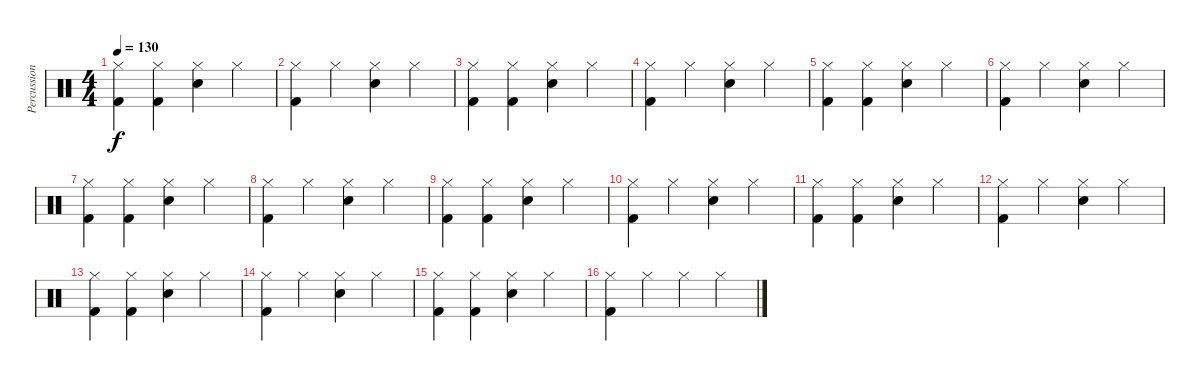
\track ("Percussion" "Percussion") {instrument percussion}
\staff {score}
\articulation defaults
\ts (4 4)
\tempo 130
\clef neutral
\ks c
("Hi-Hat (closed)" "Kick (hit) 2").4{dy f} ("Hi-Hat (closed)" "Kick (hit) 2").4 ("Hi-Hat (closed)" "Snare (hit) 2").4 "Hi-Hat (closed)".4 |
("Hi-Hat (closed)" "Kick (hit) 2").4 "Hi-Hat (closed)".4 ("Snare (hit) 2" "Hi-Hat (closed)").4 "Hi-Hat (closed)".4 |
("Hi-Hat (closed)" "Kick (hit) 2").4 ("Hi-Hat (closed)" "Kick (hit) 2").4 ("Hi-Hat (closed)" "Snare (hit) 2").4 "Hi-Hat (closed)".4 |
("Hi-Hat (closed)" "Kick (hit) 2").4 "Hi-Hat (closed)".4 ("Snare (hit) 2" "Hi-Hat (closed)").4 "Hi-Hat (closed)".4 |
("Hi-Hat (closed)" "Kick (hit) 2").4 ("Hi-Hat (closed)" "Kick (hit) 2").4 ("Hi-Hat (closed)" "Snare (hit) 2").4 "Hi-Hat (closed)".4 |
("Hi-Hat (closed)" "Kick (hit) 2").4 "Hi-Hat (closed)".4 ("Snare (hit) 2" "Hi-Hat (closed)").4 "Hi-Hat (closed)".4 |
("Hi-Hat (closed)" "Kick (hit) 2").4 ("Hi-Hat (closed)" "Kick (hit) 2").4 ("Hi-Hat (closed)" "Snare (hit) 2").4 "Hi-Hat (closed)".4 |
("Hi-Hat (closed)" "Kick (hit) 2").4 "Hi-Hat (closed)".4 ("Snare (hit) 2" "Hi-Hat (closed)").4 "Hi-Hat (closed)".4 |
("Hi-Hat (closed)" "Kick (hit) 2").4 ("Hi-Hat (closed)" "Kick (hit) 2").4 ("Hi-Hat (closed)" "Snare (hit) 2").4 "Hi-Hat (closed)".4 |
("Hi-Hat (closed)" "Kick (hit) 2").4 "Hi-Hat (closed)".4 ("Snare (hit) 2" "Hi-Hat (closed)").4 "Hi-Hat (closed)".4 |
("Hi-Hat (closed)" "Kick (hit) 2").4 ("Hi-Hat (closed)" "Kick (hit) 2").4 ("Hi-Hat (closed)" "Snare (hit) 2").4 "Hi-Hat (closed)".4 |
("Hi-Hat (closed)" "Kick (hit) 2").4 "Hi-Hat (closed)".4 ("Snare (hit) 2" "Hi-Hat (closed)").4 "Hi-Hat (closed)".4 |
("Hi-Hat (closed)" "Kick (hit) 2").4 ("Hi-Hat (closed)" "Kick (hit) 2").4 ("Hi-Hat (closed)" "Snare (hit) 2").4 "Hi-Hat (closed)".4 |
("Hi-Hat (closed)" "Kick (hit) 2").4 "Hi-Hat (closed)".4 ("Snare (hit) 2" "Hi-Hat (closed)").4 "Hi-Hat (closed)".4 |
("Hi-Hat (closed)" "Kick (hit) 2").4 ("Hi-Hat (closed)" "Kick (hit) 2").4 ("Hi-Hat (closed)" "Snare (hit) 2").4 "Hi-Hat (closed)".4 |
("Hi-Hat (closed)" "Kick (hit) 2").4 "Hi-Hat (closed)".4 "Hi-Hat (closed)".4 "Hi-Hat (closed)".4
